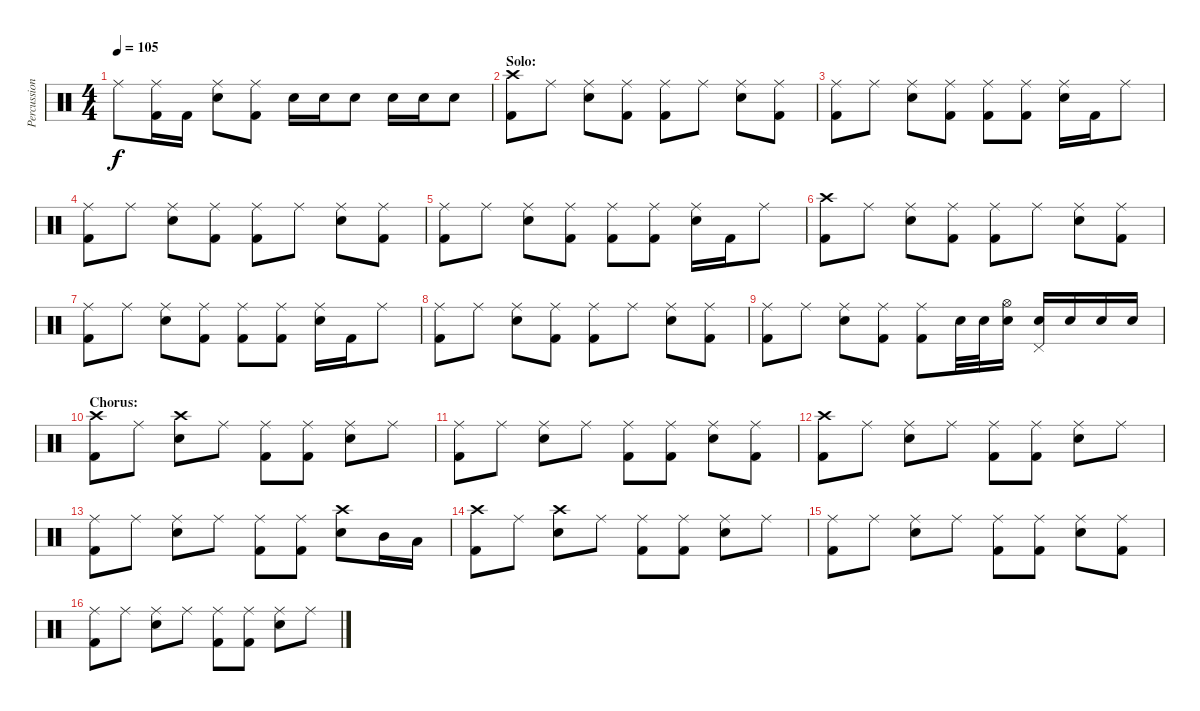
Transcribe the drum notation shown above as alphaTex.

\track ("Percussion" "Percussion") {instrument percussion}
\staff {score}
\articulation defaults
\ts (4 4)
\tempo 105
\clef neutral
\ks c "Ride (middle)".8{dy f}
("Ride (middle)" "Kick (hit) 2").16 "Kick (hit) 2".16 ("Ride (middle)" "Electric Snare (hit)").8 ("Ride (middle)" "Kick (hit) 2").8 "Electric Snare (hit)".16 "Electric Snare (hit)".16 "Electric Snare (hit)".8 "Electric Snare (hit)".16 "Electric Snare (hit)".16 "Electric Snare (hit)".8 |
\section ("" "Solo:")
("Crash high (hit)" "Kick (hit) 2").8 "Ride (middle)".8 ("Ride (middle)" "Electric Snare (hit)").8 ("Ride (middle)" "Kick (hit) 2").8 ("Ride (middle)" "Kick (hit) 2").8 "Ride (middle)".8 ("Ride (middle)" "Electric Snare (hit)").8 ("Ride (middle)" "Kick (hit) 2").8 |
("Ride (middle)" "Kick (hit) 2").8 "Ride (middle)".8 ("Ride (middle)" "Electric Snare (hit)").8 ("Ride (middle)" "Kick (hit) 2").8 ("Ride (middle)" "Kick (hit) 2").8 ("Ride (middle)" "Kick (hit) 2").8 ("Ride (middle)" "Electric Snare (hit)").16 "Kick (hit) 2".16 "Ride (middle)".8 |
("Ride (middle)" "Kick (hit) 2").8 "Ride (middle)".8 ("Ride (middle)" "Electric Snare (hit)").8 ("Ride (middle)" "Kick (hit) 2").8 ("Ride (middle)" "Kick (hit) 2").8 "Ride (middle)".8 ("Ride (middle)" "Electric Snare (hit)").8 ("Ride (middle)" "Kick (hit) 2").8 |
("Ride (middle)" "Kick (hit) 2").8 "Ride (middle)".8 ("Ride (middle)" "Electric Snare (hit)").8 ("Ride (middle)" "Kick (hit) 2").8 ("Ride (middle)" "Kick (hit) 2").8 ("Ride (middle)" "Kick (hit) 2").8 ("Ride (middle)" "Electric Snare (hit)").16 "Kick (hit) 2".16 "Ride (middle)".8 |
("Crash high (hit)" "Kick (hit) 2").8 "Ride (middle)".8 ("Ride (middle)" "Electric Snare (hit)").8 ("Ride (middle)" "Kick (hit) 2").8 ("Ride (middle)" "Kick (hit) 2").8 "Ride (middle)".8 ("Ride (middle)" "Electric Snare (hit)").8 ("Ride (middle)" "Kick (hit) 2").8 |
("Ride (middle)" "Kick (hit) 2").8 "Ride (middle)".8 ("Ride (middle)" "Electric Snare (hit)").8 ("Ride (middle)" "Kick (hit) 2").8 ("Ride (middle)" "Kick (hit) 2").8 ("Ride (middle)" "Kick (hit) 2").8 ("Ride (middle)" "Electric Snare (hit)").16 "Kick (hit) 2".16 "Ride (middle)".8 |
("Ride (middle)" "Kick (hit) 2").8 "Ride (middle)".8 ("Ride (middle)" "Electric Snare (hit)").8 ("Ride (middle)" "Kick (hit) 2").8 ("Ride (middle)" "Kick (hit) 2").8 "Ride (middle)".8 ("Ride (middle)" "Electric Snare (hit)").8 ("Ride (middle)" "Kick (hit) 2").8 |
("Ride (middle)" "Kick (hit) 2").8 "Ride (middle)".8 ("Ride (middle)" "Electric Snare (hit)").8 ("Ride (middle)" "Kick (hit) 2").8 ("Ride (middle)" "Kick (hit) 2").8 "Electric Snare (hit)".32 "Electric Snare (hit)".32 ("Hi-Hat (open)" "Electric Snare (hit)").16 ("Pedal Hi-Hat (hit)" "Electric Snare (hit)").16 "Electric Snare (hit)".16 "Electric Snare (hit)".16 "Electric Snare (hit)".16 |
\section ("" "Chorus:")
("Crash high (hit)" "Kick (hit) 2").8 "Ride (middle)".8 ("Crash high (hit)" "Electric Snare (hit)").8 "Ride (middle)".8 ("Ride (middle)" "Kick (hit) 2").8 ("Ride (middle)" "Kick (hit) 2").8 ("Ride (middle)" "Electric Snare (hit)").8 "Ride (middle)".8 |
("Ride (middle)" "Kick (hit) 2").8 "Ride (middle)".8 ("Ride (middle)" "Electric Snare (hit)").8 "Ride (middle)".8 ("Ride (middle)" "Kick (hit) 2").8 ("Ride (middle)" "Kick (hit) 2").8 ("Ride (middle)" "Electric Snare (hit)").8 ("Ride (middle)" "Kick (hit) 2").8 |
("Crash high (hit)" "Kick (hit) 2").8 "Ride (middle)".8 ("Ride (middle)" "Electric Snare (hit)").8 "Ride (middle)".8 ("Ride (middle)" "Kick (hit) 2").8 ("Ride (middle)" "Kick (hit) 2").8 ("Ride (middle)" "Electric Snare (hit)").8 "Ride (middle)".8 |
("Ride (middle)" "Kick (hit) 2").8 "Ride (middle)".8 ("Ride (middle)" "Electric Snare (hit)").8 "Ride (middle)".8 ("Ride (middle)" "Kick (hit) 2").8 ("Ride (middle)" "Kick (hit) 2").8 ("Crash high (hit)" "Electric Snare (hit)").8 "Mid Tom (hit)".16 "Low Tom (hit)".16 |
("Crash high (hit)" "Kick (hit) 2").8 "Ride (middle)".8 ("Crash high (hit)" "Electric Snare (hit)").8 "Ride (middle)".8 ("Ride (middle)" "Kick (hit) 2").8 ("Ride (middle)" "Kick (hit) 2").8 ("Ride (middle)" "Electric Snare (hit)").8 "Ride (middle)".8 |
("Ride (middle)" "Kick (hit) 2").8 "Ride (middle)".8 ("Ride (middle)" "Electric Snare (hit)").8 "Ride (middle)".8 ("Ride (middle)" "Kick (hit) 2").8 ("Ride (middle)" "Kick (hit) 2").8 ("Ride (middle)" "Electric Snare (hit)").8 ("Ride (middle)" "Kick (hit) 2").8 |
("Ride (middle)" "Kick (hit) 2").8 "Ride (middle)".8 ("Ride (middle)" "Electric Snare (hit)").8 "Ride (middle)".8 ("Ride (middle)" "Kick (hit) 2").8 ("Ride (middle)" "Kick (hit) 2").8 ("Ride (middle)" "Electric Snare (hit)").8 "Ride (middle)".8
